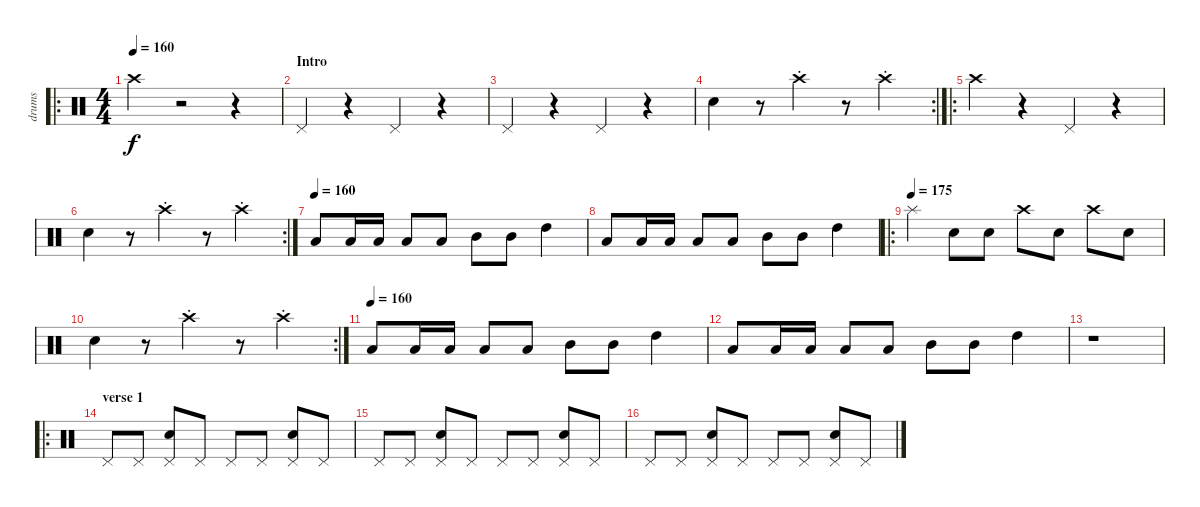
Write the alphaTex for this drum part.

\track ("drums" "drums") {instrument percussion}
\staff {score}
\articulation defaults
\ro
\ts (4 4)
\tempo 160
\tempo 175
\tempo 160
\clef neutral
\ks c "Crash high (hit)".4{dy f}
r.2 r.4 |
\section ("" "Intro")
"Pedal Hi-Hat (hit)".4 r.4 "Pedal Hi-Hat (hit)".4 r.4 |
"Pedal Hi-Hat (hit)".4 r.4 "Pedal Hi-Hat (hit)".4 r.4 |
\rc 2 "Electric Snare (hit)".4
r.8 "Crash high (hit)"{st}.4 r.8 "Crash high (hit)"{st}.4 |
\ro "Crash high (hit)".4
r.4 "Pedal Hi-Hat (hit)".4 r.4 |
\rc 2 "Electric Snare (hit)".4
r.8 "Crash high (hit)"{st}.4 r.8 "Crash high (hit)"{st}.4 |
\tempo (160)
"Low Tom (hit)".8 "Low Tom (hit)".16 "Low Tom (hit)".16 "Low Tom (hit)".8 "Low Tom (hit)".8 "Mid Tom (hit)".8 "Mid Tom (hit)".8 "High Tom (hit)".4 |
"Low Tom (hit)".8 "Low Tom (hit)".16 "Low Tom (hit)".16 "Low Tom (hit)".8 "Low Tom (hit)".8 "Mid Tom (hit)".8 "Mid Tom (hit)".8 "High Tom (hit)".4 |
\ro
\tempo (175)
"Splash (hit)".4 "Electric Snare (hit)".8 "Electric Snare (hit)".8 "Crash high (hit)".8 "Electric Snare (hit)".8 "Crash high (hit)".8 "Electric Snare (hit)".8 |
\rc 2 "Electric Snare (hit)".4
r.8 "Crash high (hit)"{st}.4 r.8 "Crash high (hit)"{st}.4 |
\tempo (160)
"Low Tom (hit)".8 "Low Tom (hit)".16 "Low Tom (hit)".16 "Low Tom (hit)".8 "Low Tom (hit)".8 "Mid Tom (hit)".8 "Mid Tom (hit)".8 "High Tom (hit)".4 |
"Low Tom (hit)".8 "Low Tom (hit)".16 "Low Tom (hit)".16 "Low Tom (hit)".8 "Low Tom (hit)".8 "Mid Tom (hit)".8 "Mid Tom (hit)".8 "High Tom (hit)".4 |
r.1 |
\ro
\section ("" "verse 1")
"Pedal Hi-Hat (hit)".8 "Pedal Hi-Hat (hit)".8 ("Electric Snare (hit)" "Pedal Hi-Hat (hit)").8 "Pedal Hi-Hat (hit)".8 "Pedal Hi-Hat (hit)".8 "Pedal Hi-Hat (hit)".8 ("Electric Snare (hit)" "Pedal Hi-Hat (hit)").8 "Pedal Hi-Hat (hit)".8 |
\section ("" "")
"Pedal Hi-Hat (hit)".8 "Pedal Hi-Hat (hit)".8 ("Electric Snare (hit)" "Pedal Hi-Hat (hit)").8 "Pedal Hi-Hat (hit)".8 "Pedal Hi-Hat (hit)".8 "Pedal Hi-Hat (hit)".8 ("Electric Snare (hit)" "Pedal Hi-Hat (hit)").8 "Pedal Hi-Hat (hit)".8 |
"Pedal Hi-Hat (hit)".8 "Pedal Hi-Hat (hit)".8 ("Electric Snare (hit)" "Pedal Hi-Hat (hit)").8 "Pedal Hi-Hat (hit)".8 "Pedal Hi-Hat (hit)".8 "Pedal Hi-Hat (hit)".8 ("Electric Snare (hit)" "Pedal Hi-Hat (hit)").8 "Pedal Hi-Hat (hit)".8
